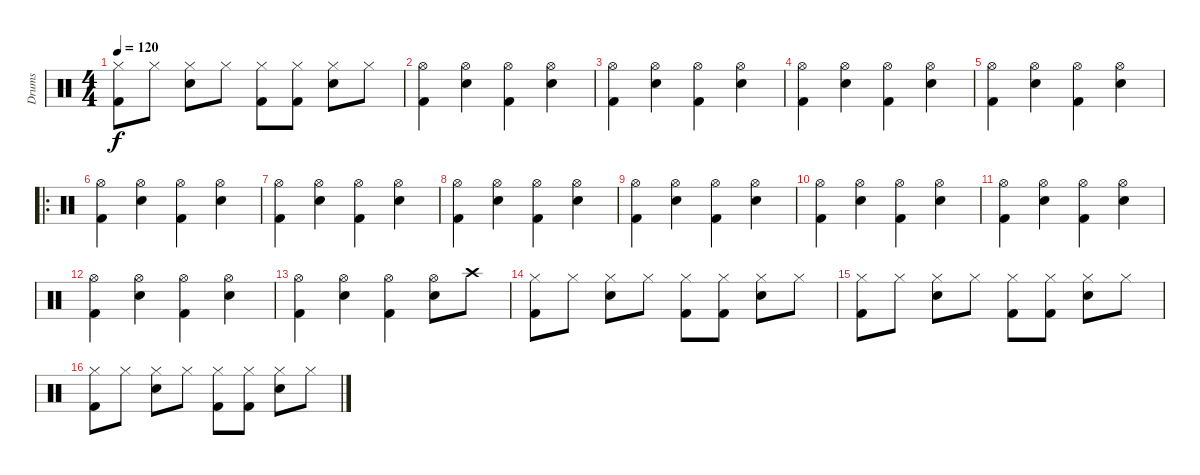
\track ("Drums" "Drums") {instrument percussion}
\staff {score}
\articulation defaults
\ts (4 4)
\tempo 120
\clef neutral
\ks c
("Hi-Hat (closed)" "Kick (hit) 2").8{dy f} "Hi-Hat (closed)".8 ("Hi-Hat (closed)" "Snare (hit) 2").8 "Hi-Hat (closed)".8 ("Hi-Hat (closed)" "Kick (hit) 2").8 ("Hi-Hat (closed)" "Kick (hit) 2").8 ("Hi-Hat (closed)" "Snare (hit) 2").8 "Hi-Hat (closed)".8 |
("Hi-Hat (open)" "Kick (hit) 2").4 ("Hi-Hat (open)" "Snare (hit) 2").4 ("Hi-Hat (open)" "Kick (hit) 2").4 ("Hi-Hat (open)" "Snare (hit) 2").4 |
("Hi-Hat (open)" "Kick (hit) 2").4 ("Hi-Hat (open)" "Snare (hit) 2").4 ("Hi-Hat (open)" "Kick (hit) 2").4 ("Hi-Hat (open)" "Snare (hit) 2").4 |
("Hi-Hat (open)" "Kick (hit) 2").4 ("Hi-Hat (open)" "Snare (hit) 2").4 ("Hi-Hat (open)" "Kick (hit) 2").4 ("Hi-Hat (open)" "Snare (hit) 2").4 |
("Hi-Hat (open)" "Kick (hit) 2").4 ("Hi-Hat (open)" "Snare (hit) 2").4 ("Hi-Hat (open)" "Kick (hit) 2").4 ("Hi-Hat (open)" "Snare (hit) 2").4 |
\ro
("Hi-Hat (open)" "Kick (hit) 2").4 ("Hi-Hat (open)" "Snare (hit) 2").4 ("Hi-Hat (open)" "Kick (hit) 2").4 ("Hi-Hat (open)" "Snare (hit) 2").4 |
("Hi-Hat (open)" "Kick (hit) 2").4 ("Hi-Hat (open)" "Snare (hit) 2").4 ("Hi-Hat (open)" "Kick (hit) 2").4 ("Hi-Hat (open)" "Snare (hit) 2").4 |
("Hi-Hat (open)" "Kick (hit) 2").4 ("Hi-Hat (open)" "Snare (hit) 2").4 ("Hi-Hat (open)" "Kick (hit) 2").4 ("Hi-Hat (open)" "Snare (hit) 2").4 |
("Hi-Hat (open)" "Kick (hit) 2").4 ("Hi-Hat (open)" "Snare (hit) 2").4 ("Hi-Hat (open)" "Kick (hit) 2").4 ("Hi-Hat (open)" "Snare (hit) 2").4 |
("Hi-Hat (open)" "Kick (hit) 2").4 ("Hi-Hat (open)" "Snare (hit) 2").4 ("Hi-Hat (open)" "Kick (hit) 2").4 ("Hi-Hat (open)" "Snare (hit) 2").4 |
("Hi-Hat (open)" "Kick (hit) 2").4 ("Hi-Hat (open)" "Snare (hit) 2").4 ("Hi-Hat (open)" "Kick (hit) 2").4 ("Hi-Hat (open)" "Snare (hit) 2").4 |
("Hi-Hat (open)" "Kick (hit) 2").4 ("Hi-Hat (open)" "Snare (hit) 2").4 ("Hi-Hat (open)" "Kick (hit) 2").4 ("Hi-Hat (open)" "Snare (hit) 2").4 |
("Hi-Hat (open)" "Kick (hit) 2").4 ("Hi-Hat (open)" "Snare (hit) 2").4 ("Hi-Hat (open)" "Kick (hit) 2").4 ("Hi-Hat (open)" "Snare (hit) 2").8 "Crash high (hit)".8 |
("Hi-Hat (closed)" "Kick (hit) 2").8 "Hi-Hat (closed)".8 ("Hi-Hat (closed)" "Snare (hit) 2").8 "Hi-Hat (closed)".8 ("Hi-Hat (closed)" "Kick (hit) 2").8 ("Hi-Hat (closed)" "Kick (hit) 2").8 ("Hi-Hat (closed)" "Snare (hit) 2").8 "Hi-Hat (closed)".8 |
("Hi-Hat (closed)" "Kick (hit) 2").8 "Hi-Hat (closed)".8 ("Hi-Hat (closed)" "Snare (hit) 2").8 "Hi-Hat (closed)".8 ("Hi-Hat (closed)" "Kick (hit) 2").8 ("Hi-Hat (closed)" "Kick (hit) 2").8 ("Hi-Hat (closed)" "Snare (hit) 2").8 "Hi-Hat (closed)".8 |
("Hi-Hat (closed)" "Kick (hit) 2").8 "Hi-Hat (closed)".8 ("Hi-Hat (closed)" "Snare (hit) 2").8 "Hi-Hat (closed)".8 ("Hi-Hat (closed)" "Kick (hit) 2").8 ("Hi-Hat (closed)" "Kick (hit) 2").8 ("Hi-Hat (closed)" "Snare (hit) 2").8 "Hi-Hat (closed)".8
